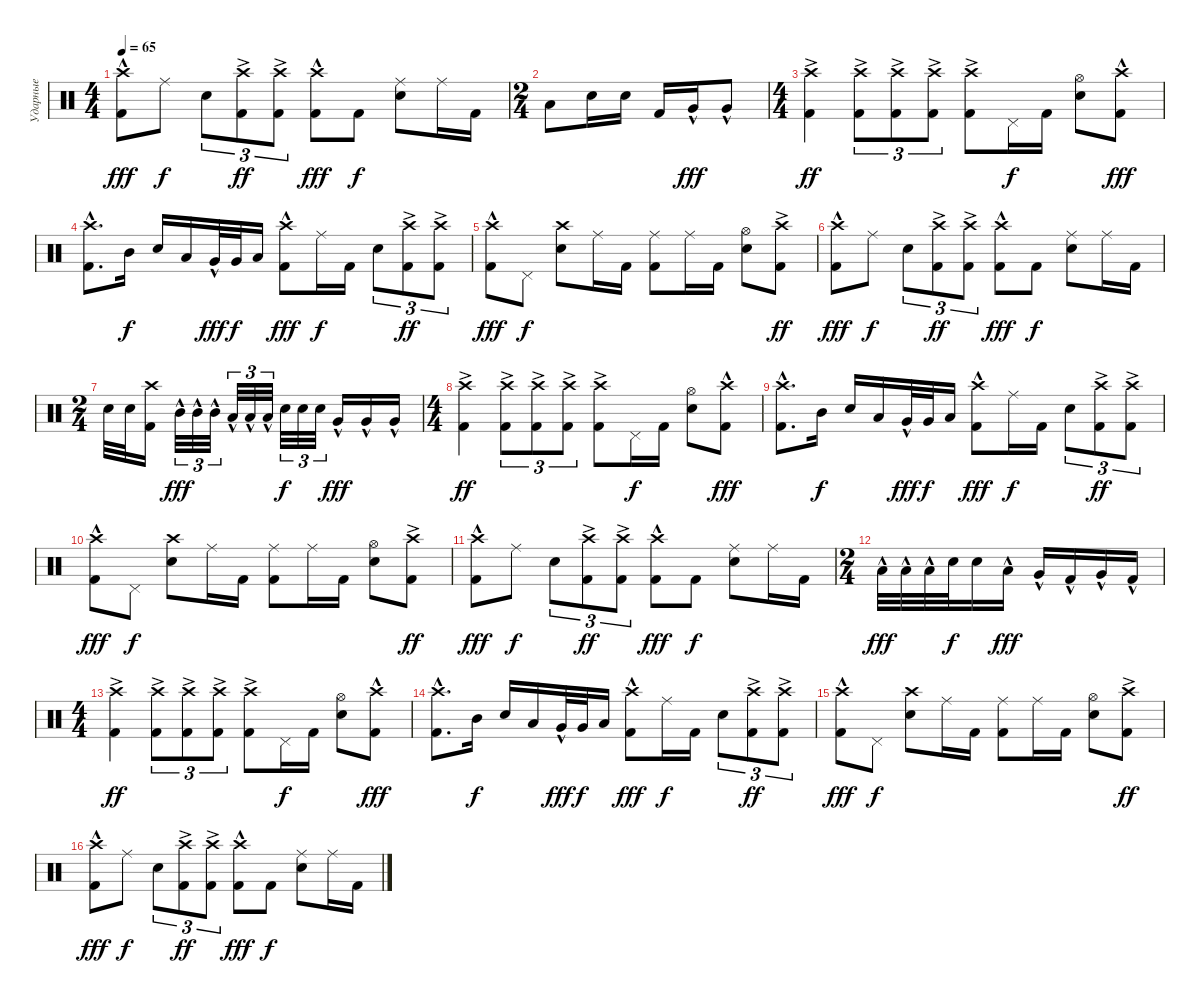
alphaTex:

\track ("Ударные" "Ударные") {instrument percussion}
\staff {score}
\articulation defaults
\ts (4 4)
\tempo 65
\clef neutral
\ks c
("Kick (hit) 2" "Crash high (hit)"{hac}).8{dy fff} "Ride (middle)".8{dy f} "Snare (hit) 2".8{tu (3 2)} ("Kick (hit) 2" "Crash high (hit)"{ac}).8{tu (3 2) dy ff} ("Kick (hit) 2" "Crash high (hit)"{ac}).8{tu (3 2)} ("Kick (hit) 2" "Crash high (hit)"{hac}).8{dy fff} "Kick (hit) 2".8{dy f} ("Snare (hit) 2" "Ride (middle)").8 "Ride (middle)".16 "Kick (hit) 2".16 |
\ts (2 4)
"Low Tom (hit)".8 "Snare (hit) 2".16 "Snare (hit) 2".16 "Kick (hit) 2".16 "Very Low Tom (hit)"{hac}.16{dy fff} "Very Low Tom (hit)"{hac}.8 |
\ts (4 4)
("Kick (hit) 2" "Crash high (hit)"{ac}).4{dy ff} ("Kick (hit) 2" "Crash high (hit)"{ac}).8{tu (3 2)} ("Kick (hit) 2" "Crash high (hit)"{ac}).8{tu (3 2)} ("Kick (hit) 2" "Crash high (hit)"{ac}).8{tu (3 2)} ("Kick (hit) 2" "Crash high (hit)"{ac}).8 "Pedal Hi-Hat (hit)".16{dy f} "Kick (hit) 2".16 ("Snare (hit) 2" "Hi-Hat (open)").8 ("Kick (hit) 2" "Crash high (hit)"{hac}).8{dy fff} |
("Kick (hit) 2" "Crash high (hit)"{hac}).8{d} "Mid Tom (hit)".16{dy f} "Snare (hit) 2".16 "Low Tom (hit)".16 "Very Low Tom (hit)"{hac}.32{dy fff} "Very Low Tom (hit)".32{dy f} "Low Floor Tom (hit)".16 ("Kick (hit) 2" "Crash high (hit)"{hac}).8{dy fff} "Ride (middle)".16{dy f} "Kick (hit) 2".16 "Snare (hit) 2".8{tu (3 2)} ("Kick (hit) 2" "Crash high (hit)"{ac}).8{tu (3 2) dy ff} ("Kick (hit) 2" "Crash high (hit)"{ac}).8{tu (3 2)} |
("Kick (hit) 2" "Crash high (hit)"{hac}).8{dy fff} "Pedal Hi-Hat (hit)".8{dy f} ("Snare (hit) 2" "Crash high (hit)").8 "Ride (middle)".16 "Kick (hit) 2".16 ("Kick (hit) 2" "Ride (middle)").8 "Ride (middle)".16 "Kick (hit) 2".16 ("Snare (hit) 2" "Hi-Hat (open)").8 ("Kick (hit) 2" "Crash high (hit)"{ac}).8{dy ff} |
("Kick (hit) 2" "Crash high (hit)"{hac}).8{dy fff} "Ride (middle)".8{dy f} "Snare (hit) 2".8{tu (3 2)} ("Kick (hit) 2" "Crash high (hit)"{ac}).8{tu (3 2) dy ff} ("Kick (hit) 2" "Crash high (hit)"{ac}).8{tu (3 2)} ("Kick (hit) 2" "Crash high (hit)"{hac}).8{dy fff} "Kick (hit) 2".8{dy f} ("Snare (hit) 2" "Ride (middle)").8 "Ride (middle)".16 "Kick (hit) 2".16 |
\ts (2 4)
"Snare (hit) 2".32 "Snare (hit) 2".32 ("Kick (hit) 2" "Crash high (hit)").16{beam splitsecondary} "Mid Tom (hit)"{hac}.32{tu (3 2) dy fff} "Mid Tom (hit)"{hac}.32{tu (3 2)} "Mid Tom (hit)"{hac}.32{tu (3 2) beam splitsecondary} "Low Tom (hit)"{hac}.32{tu (3 2)} "Low Tom (hit)"{hac}.32{tu (3 2)} "Low Tom (hit)"{hac}.32{tu (3 2)} "Snare (hit) 2".32{tu (3 2) dy f} "Snare (hit) 2".32{tu (3 2)} "Snare (hit) 2".32{tu (3 2) beam splitsecondary} "Very Low Tom (hit)"{hac}.16{dy fff} "Very Low Tom (hit)"{hac}.16 "Very Low Tom (hit)"{hac}.16 |
\ts (4 4)
("Kick (hit) 2" "Crash high (hit)"{ac}).4{dy ff} ("Kick (hit) 2" "Crash high (hit)"{ac}).8{tu (3 2)} ("Kick (hit) 2" "Crash high (hit)"{ac}).8{tu (3 2)} ("Kick (hit) 2" "Crash high (hit)"{ac}).8{tu (3 2)} ("Kick (hit) 2" "Crash high (hit)"{ac}).8 "Pedal Hi-Hat (hit)".16{dy f} "Kick (hit) 2".16 ("Snare (hit) 2" "Hi-Hat (open)").8 ("Kick (hit) 2" "Crash high (hit)"{hac}).8{dy fff} |
("Kick (hit) 2" "Crash high (hit)"{hac}).8{d} "Mid Tom (hit)".16{dy f} "Snare (hit) 2".16 "Low Tom (hit)".16 "Very Low Tom (hit)"{hac}.32{dy fff} "Very Low Tom (hit)".32{dy f} "Low Floor Tom (hit)".16 ("Kick (hit) 2" "Crash high (hit)"{hac}).8{dy fff} "Ride (middle)".16{dy f} "Kick (hit) 2".16 "Snare (hit) 2".8{tu (3 2)} ("Kick (hit) 2" "Crash high (hit)"{ac}).8{tu (3 2) dy ff} ("Kick (hit) 2" "Crash high (hit)"{ac}).8{tu (3 2)} |
("Kick (hit) 2" "Crash high (hit)"{hac}).8{dy fff} "Pedal Hi-Hat (hit)".8{dy f} ("Snare (hit) 2" "Crash high (hit)").8 "Ride (middle)".16 "Kick (hit) 2".16 ("Kick (hit) 2" "Ride (middle)").8 "Ride (middle)".16 "Kick (hit) 2".16 ("Snare (hit) 2" "Hi-Hat (open)").8 ("Kick (hit) 2" "Crash high (hit)"{ac}).8{dy ff} |
("Kick (hit) 2" "Crash high (hit)"{hac}).8{dy fff} "Ride (middle)".8{dy f} "Snare (hit) 2".8{tu (3 2)} ("Kick (hit) 2" "Crash high (hit)"{ac}).8{tu (3 2) dy ff} ("Kick (hit) 2" "Crash high (hit)"{ac}).8{tu (3 2)} ("Kick (hit) 2" "Crash high (hit)"{hac}).8{dy fff} "Kick (hit) 2".8{dy f} ("Snare (hit) 2" "Ride (middle)").8 "Ride (middle)".16 "Kick (hit) 2".16 |
\ts (2 4)
"Low Tom (hit)"{hac}.32{dy fff} "Low Tom (hit)"{hac}.32 "Low Tom (hit)"{hac}.32 "Snare (hit) 2".32{dy f} "Snare (hit) 2".16 "Low Tom (hit)"{hac}.16{dy fff} "Very Low Tom (hit)"{hac}.16 "Kick (hit) 2"{hac}.16 "Very Low Tom (hit)"{hac}.16 "Kick (hit) 2"{hac}.16 |
\ts (4 4)
("Kick (hit) 2" "Crash high (hit)"{ac}).4{dy ff} ("Kick (hit) 2" "Crash high (hit)"{ac}).8{tu (3 2)} ("Kick (hit) 2" "Crash high (hit)"{ac}).8{tu (3 2)} ("Kick (hit) 2" "Crash high (hit)"{ac}).8{tu (3 2)} ("Kick (hit) 2" "Crash high (hit)"{ac}).8 "Pedal Hi-Hat (hit)".16{dy f} "Kick (hit) 2".16 ("Snare (hit) 2" "Hi-Hat (open)").8 ("Kick (hit) 2" "Crash high (hit)"{hac}).8{dy fff} |
("Kick (hit) 2" "Crash high (hit)"{hac}).8{d} "Mid Tom (hit)".16{dy f} "Snare (hit) 2".16 "Low Tom (hit)".16 "Very Low Tom (hit)"{hac}.32{dy fff} "Very Low Tom (hit)".32{dy f} "Low Floor Tom (hit)".16 ("Kick (hit) 2" "Crash high (hit)"{hac}).8{dy fff} "Ride (middle)".16{dy f} "Kick (hit) 2".16 "Snare (hit) 2".8{tu (3 2)} ("Kick (hit) 2" "Crash high (hit)"{ac}).8{tu (3 2) dy ff} ("Kick (hit) 2" "Crash high (hit)"{ac}).8{tu (3 2)} |
("Kick (hit) 2" "Crash high (hit)"{hac}).8{dy fff} "Pedal Hi-Hat (hit)".8{dy f} ("Snare (hit) 2" "Crash high (hit)").8 "Ride (middle)".16 "Kick (hit) 2".16 ("Kick (hit) 2" "Ride (middle)").8 "Ride (middle)".16 "Kick (hit) 2".16 ("Snare (hit) 2" "Hi-Hat (open)").8 ("Kick (hit) 2" "Crash high (hit)"{ac}).8{dy ff} |
("Kick (hit) 2" "Crash high (hit)"{hac}).8{dy fff} "Ride (middle)".8{dy f} "Snare (hit) 2".8{tu (3 2)} ("Kick (hit) 2" "Crash high (hit)"{ac}).8{tu (3 2) dy ff} ("Kick (hit) 2" "Crash high (hit)"{ac}).8{tu (3 2)} ("Kick (hit) 2" "Crash high (hit)"{hac}).8{dy fff} "Kick (hit) 2".8{dy f} ("Snare (hit) 2" "Ride (middle)").8 "Ride (middle)".16 "Kick (hit) 2".16
